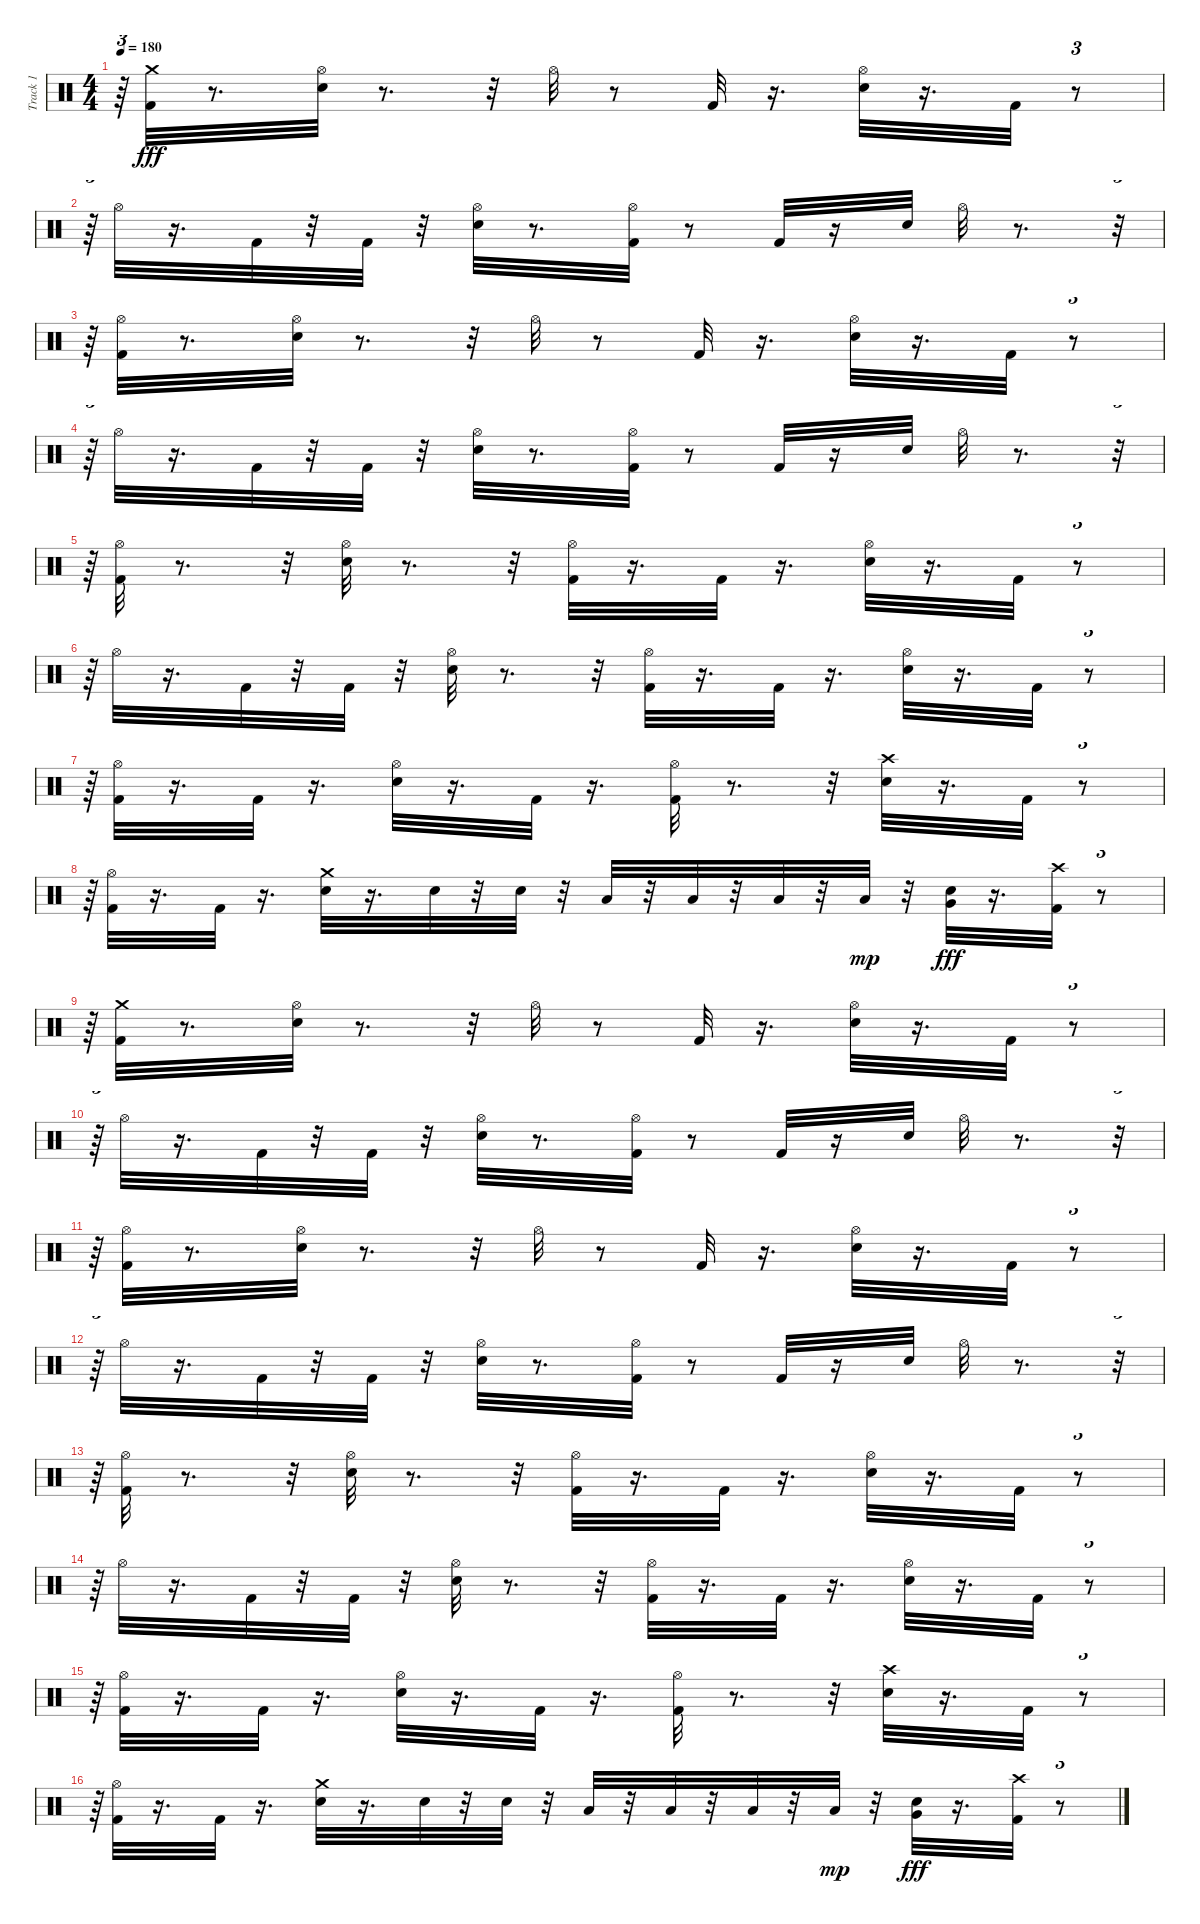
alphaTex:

\track ("Track 1" "Track 1") {mute instrument percussion}
\staff {score}
\articulation defaults
\ts (4 4)
\tempo 180
\clef neutral
\ks c
r.64{tu (3 2) dy fff} ("Crash medium (hit)" "Kick (hit) 2").32 r.8{d} ("Snare (hit) 2" "Hi-Hat (open)").32 r.8{d} r.32 "Hi-Hat (open)".32 r.8 "Kick (hit) 2".32 r.16{d} ("Snare (hit) 2" "Hi-Hat (open)").32 r.16{d} "Kick (hit) 2".32 r.8{tu (3 2)} |
r.64{tu (3 2)} "Hi-Hat (open)".32 r.16{d} "Kick (hit) 2".32 r.32 "Kick (hit) 2".32 r.32 ("Snare (hit) 2" "Hi-Hat (open)").32 r.8{d} ("Hi-Hat (open)" "Kick (hit) 2").32 r.8 "Kick (hit) 2".32 r.16 "Snare (hit) 2".32 "Hi-Hat (open)".32 r.8{d} r.32{tu (3 2)} |
r.64{tu (3 2)} ("Hi-Hat (open)" "Kick (hit) 2").32 r.8{d} ("Snare (hit) 2" "Hi-Hat (open)").32 r.8{d} r.32 "Hi-Hat (open)".32 r.8 "Kick (hit) 2".32 r.16{d} ("Hi-Hat (open)" "Snare (hit) 2").32 r.16{d} "Kick (hit) 2".32 r.8{tu (3 2)} |
r.64{tu (3 2)} "Hi-Hat (open)".32 r.16{d} "Kick (hit) 2".32 r.32 "Kick (hit) 2".32 r.32 ("Snare (hit) 2" "Hi-Hat (open)").32 r.8{d} ("Hi-Hat (open)" "Kick (hit) 2").32 r.8 "Kick (hit) 2".32 r.16 "Snare (hit) 2".32 "Hi-Hat (open)".32 r.8{d} r.32{tu (3 2)} |
r.64{tu (3 2)} ("Hi-Hat (open)" "Kick (hit) 2").32 r.8{d} r.32 ("Hi-Hat (open)" "Snare (hit) 2").32 r.8{d} r.32 ("Hi-Hat (open)" "Kick (hit) 2").32 r.16{d} "Kick (hit) 2".32 r.16{d} ("Snare (hit) 2" "Hi-Hat (open)").32 r.16{d} "Kick (hit) 2".32 r.8{tu (3 2)} |
r.64{tu (3 2)} "Hi-Hat (open)".32 r.16{d} "Kick (hit) 2".32 r.32 "Kick (hit) 2".32 r.32 ("Snare (hit) 2" "Hi-Hat (open)").32 r.8{d} r.32 ("Hi-Hat (open)" "Kick (hit) 2").32 r.16{d} "Kick (hit) 2".32 r.16{d} ("Hi-Hat (open)" "Snare (hit) 2").32 r.16{d} "Kick (hit) 2".32 r.8{tu (3 2)} |
r.64{tu (3 2)} ("Hi-Hat (open)" "Kick (hit) 2").32 r.16{d} "Kick (hit) 2".32 r.16{d} ("Electric Snare (hit)" "Hi-Hat (open)").32 r.16{d} "Kick (hit) 2".32 r.16{d} ("Hi-Hat (open)" "Kick (hit) 2").32 r.8{d} r.32 ("Electric Snare (hit)" "Crash high (hit)").32 r.16{d} "Kick (hit) 2".32 r.8{tu (3 2)} |
r.64{tu (3 2)} ("Hi-Hat (open)" "Kick (hit) 2").32 r.16{d} "Kick (hit) 2".32 r.16{d} ("Crash medium (hit)" "Electric Snare (hit)").32 r.16{d} "Snare (hit) 2".32 r.32 "Electric Snare (hit)".32 r.32 "Low Tom (hit)".32 r.32 "Low Tom (hit)".32 r.32 "Low Tom (hit)".32 r.32 "Low Tom (hit)".32{dy mp} r.32 ("Very Low Tom (hit)" "Electric Snare (hit)").32{dy fff} r.16{d} ("Crash high (hit)" "Kick (hit) 2").32 r.8{tu (3 2)} |
r.64{tu (3 2)} ("Crash medium (hit)" "Kick (hit) 2").32 r.8{d} ("Snare (hit) 2" "Hi-Hat (open)").32 r.8{d} r.32 "Hi-Hat (open)".32 r.8 "Kick (hit) 2".32 r.16{d} ("Snare (hit) 2" "Hi-Hat (open)").32 r.16{d} "Kick (hit) 2".32 r.8{tu (3 2)} |
r.64{tu (3 2)} "Hi-Hat (open)".32 r.16{d} "Kick (hit) 2".32 r.32 "Kick (hit) 2".32 r.32 ("Snare (hit) 2" "Hi-Hat (open)").32 r.8{d} ("Hi-Hat (open)" "Kick (hit) 2").32 r.8 "Kick (hit) 2".32 r.16 "Snare (hit) 2".32 "Hi-Hat (open)".32 r.8{d} r.32{tu (3 2)} |
r.64{tu (3 2)} ("Hi-Hat (open)" "Kick (hit) 2").32 r.8{d} ("Snare (hit) 2" "Hi-Hat (open)").32 r.8{d} r.32 "Hi-Hat (open)".32 r.8 "Kick (hit) 2".32 r.16{d} ("Hi-Hat (open)" "Snare (hit) 2").32 r.16{d} "Kick (hit) 2".32 r.8{tu (3 2)} |
r.64{tu (3 2)} "Hi-Hat (open)".32 r.16{d} "Kick (hit) 2".32 r.32 "Kick (hit) 2".32 r.32 ("Snare (hit) 2" "Hi-Hat (open)").32 r.8{d} ("Hi-Hat (open)" "Kick (hit) 2").32 r.8 "Kick (hit) 2".32 r.16 "Snare (hit) 2".32 "Hi-Hat (open)".32 r.8{d} r.32{tu (3 2)} |
r.64{tu (3 2)} ("Hi-Hat (open)" "Kick (hit) 2").32 r.8{d} r.32 ("Hi-Hat (open)" "Snare (hit) 2").32 r.8{d} r.32 ("Hi-Hat (open)" "Kick (hit) 2").32 r.16{d} "Kick (hit) 2".32 r.16{d} ("Snare (hit) 2" "Hi-Hat (open)").32 r.16{d} "Kick (hit) 2".32 r.8{tu (3 2)} |
r.64{tu (3 2)} "Hi-Hat (open)".32 r.16{d} "Kick (hit) 2".32 r.32 "Kick (hit) 2".32 r.32 ("Snare (hit) 2" "Hi-Hat (open)").32 r.8{d} r.32 ("Hi-Hat (open)" "Kick (hit) 2").32 r.16{d} "Kick (hit) 2".32 r.16{d} ("Hi-Hat (open)" "Snare (hit) 2").32 r.16{d} "Kick (hit) 2".32 r.8{tu (3 2)} |
r.64{tu (3 2)} ("Hi-Hat (open)" "Kick (hit) 2").32 r.16{d} "Kick (hit) 2".32 r.16{d} ("Electric Snare (hit)" "Hi-Hat (open)").32 r.16{d} "Kick (hit) 2".32 r.16{d} ("Hi-Hat (open)" "Kick (hit) 2").32 r.8{d} r.32 ("Electric Snare (hit)" "Crash high (hit)").32 r.16{d} "Kick (hit) 2".32 r.8{tu (3 2)} |
r.64{tu (3 2)} ("Hi-Hat (open)" "Kick (hit) 2").32 r.16{d} "Kick (hit) 2".32 r.16{d} ("Crash medium (hit)" "Electric Snare (hit)").32 r.16{d} "Snare (hit) 2".32 r.32 "Electric Snare (hit)".32 r.32 "Low Tom (hit)".32 r.32 "Low Tom (hit)".32 r.32 "Low Tom (hit)".32 r.32 "Low Tom (hit)".32{dy mp} r.32 ("Very Low Tom (hit)" "Electric Snare (hit)").32{dy fff} r.16{d} ("Crash high (hit)" "Kick (hit) 2").32 r.8{tu (3 2)}
